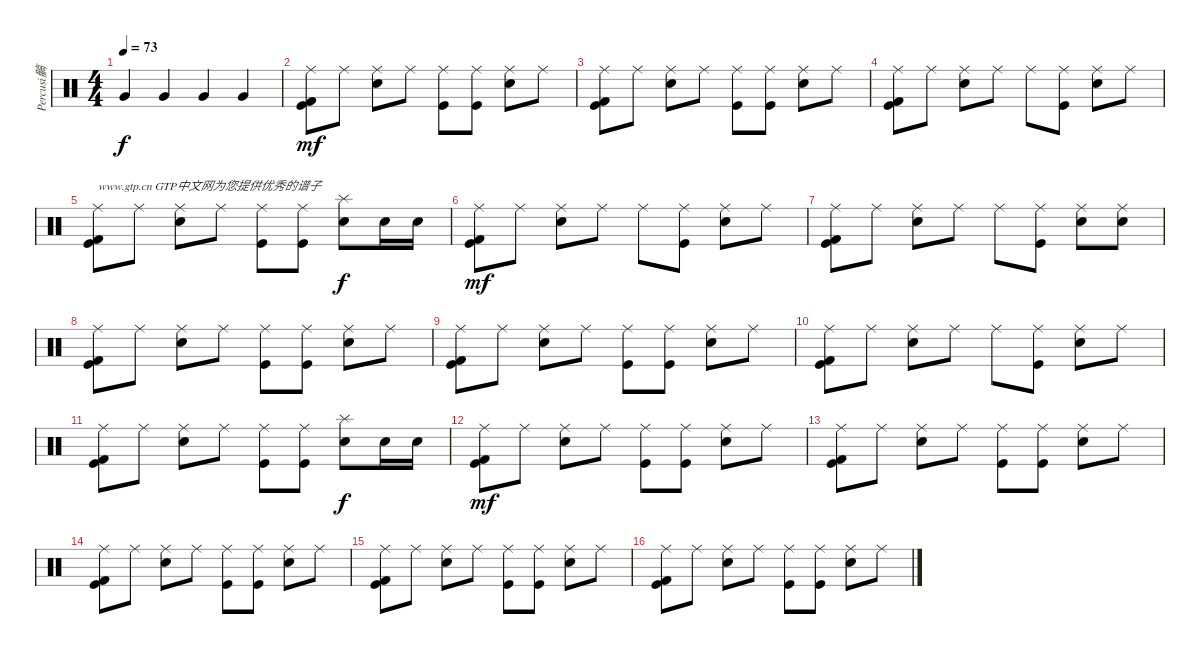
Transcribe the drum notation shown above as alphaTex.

\track ("Percusi髇" "Percusi髇") {instrument percussion}
\staff {score}
\articulation defaults
\ts (4 4)
\tempo 73
\clef neutral
\ks c "Very Low Tom (hit)".4{dy f} "Very Low Tom (hit)".4 "Very Low Tom (hit)".4 "Very Low Tom (hit)".4
|
("Ride (middle)" "Kick (hit) 2" "Kick (hit)").8{dy mf} "Ride (middle)".8 ("Ride (middle)" "Electric Snare (hit)").8 "Ride (middle)".8 ("Ride (middle)" "Kick (hit)").8 ("Ride (middle)" "Kick (hit)").8 ("Ride (middle)" "Electric Snare (hit)").8 "Ride (middle)".8 |
("Ride (middle)" "Kick (hit) 2" "Kick (hit)").8 "Ride (middle)".8 ("Ride (middle)" "Electric Snare (hit)").8 "Ride (middle)".8 ("Ride (middle)" "Kick (hit)").8 ("Ride (middle)" "Kick (hit)").8 ("Ride (middle)" "Electric Snare (hit)").8 "Ride (middle)".8 |
("Ride (middle)" "Kick (hit) 2" "Kick (hit)").8 "Ride (middle)".8 ("Ride (middle)" "Electric Snare (hit)").8 "Ride (middle)".8 "Ride (middle)".8 ("Ride (middle)" "Kick (hit)").8 ("Ride (middle)" "Electric Snare (hit)").8 "Ride (middle)".8 |
("Ride (middle)" "Kick (hit) 2" "Kick (hit)").8{txt "www.gtp.cn GTP中文网为您提供优秀的谱子"} "Ride (middle)".8 ("Ride (middle)" "Electric Snare (hit)").8 "Ride (middle)".8 ("Ride (middle)" "Kick (hit)").8 ("Ride (middle)" "Kick (hit)").8 ("Splash (hit)" "Electric Snare (hit)").8{dy f} "Electric Snare (hit)".16 "Electric Snare (hit)".16 |
("Ride (middle)" "Kick (hit) 2" "Kick (hit)").8{dy mf} "Ride (middle)".8 ("Ride (middle)" "Electric Snare (hit)").8 "Ride (middle)".8 "Ride (middle)".8 ("Ride (middle)" "Kick (hit)").8 ("Ride (middle)" "Electric Snare (hit)").8 "Ride (middle)".8 |
("Ride (middle)" "Kick (hit) 2" "Kick (hit)").8 "Ride (middle)".8 ("Ride (middle)" "Electric Snare (hit)").8 "Ride (middle)".8 "Ride (middle)".8 ("Ride (middle)" "Kick (hit)").8 ("Ride (middle)" "Electric Snare (hit)").8 ("Ride (middle)" "Electric Snare (hit)").8 |
("Ride (middle)" "Kick (hit) 2" "Kick (hit)").8 "Ride (middle)".8 ("Ride (middle)" "Electric Snare (hit)").8 "Ride (middle)".8 ("Ride (middle)" "Kick (hit)").8 ("Ride (middle)" "Kick (hit)").8 ("Ride (middle)" "Electric Snare (hit)").8 "Ride (middle)".8 |
("Ride (middle)" "Kick (hit) 2" "Kick (hit)").8 "Ride (middle)".8 ("Ride (middle)" "Electric Snare (hit)").8 "Ride (middle)".8 ("Ride (middle)" "Kick (hit)").8 ("Ride (middle)" "Kick (hit)").8 ("Ride (middle)" "Electric Snare (hit)").8 "Ride (middle)".8 |
("Ride (middle)" "Kick (hit) 2" "Kick (hit)").8 "Ride (middle)".8 ("Ride (middle)" "Electric Snare (hit)").8 "Ride (middle)".8 "Ride (middle)".8 ("Ride (middle)" "Kick (hit)").8 ("Ride (middle)" "Electric Snare (hit)").8 "Ride (middle)".8 |
("Ride (middle)" "Kick (hit) 2" "Kick (hit)").8 "Ride (middle)".8 ("Ride (middle)" "Electric Snare (hit)").8 "Ride (middle)".8 ("Ride (middle)" "Kick (hit)").8 ("Ride (middle)" "Kick (hit)").8 ("Splash (hit)" "Electric Snare (hit)").8{dy f} "Electric Snare (hit)".16 "Electric Snare (hit)".16 |
("Ride (middle)" "Kick (hit) 2" "Kick (hit)").8{dy mf} "Ride (middle)".8 ("Ride (middle)" "Electric Snare (hit)").8 "Ride (middle)".8 ("Ride (middle)" "Kick (hit)").8 ("Ride (middle)" "Kick (hit)").8 ("Ride (middle)" "Electric Snare (hit)").8 "Ride (middle)".8 |
("Ride (middle)" "Kick (hit) 2" "Kick (hit)").8 "Ride (middle)".8 ("Ride (middle)" "Electric Snare (hit)").8 "Ride (middle)".8 ("Ride (middle)" "Kick (hit)").8 ("Ride (middle)" "Kick (hit)").8 ("Ride (middle)" "Electric Snare (hit)").8 "Ride (middle)".8 |
("Ride (middle)" "Kick (hit) 2" "Kick (hit)").8 "Ride (middle)".8 ("Ride (middle)" "Electric Snare (hit)").8 "Ride (middle)".8 ("Ride (middle)" "Kick (hit)").8 ("Ride (middle)" "Kick (hit)").8 ("Ride (middle)" "Electric Snare (hit)").8 "Ride (middle)".8 |
("Ride (middle)" "Kick (hit) 2" "Kick (hit)").8 "Ride (middle)".8 ("Ride (middle)" "Electric Snare (hit)").8 "Ride (middle)".8 ("Ride (middle)" "Kick (hit)").8 ("Ride (middle)" "Kick (hit)").8 ("Ride (middle)" "Electric Snare (hit)").8 "Ride (middle)".8 |
("Ride (middle)" "Kick (hit) 2" "Kick (hit)").8 "Ride (middle)".8 ("Ride (middle)" "Electric Snare (hit)").8 "Ride (middle)".8 ("Ride (middle)" "Kick (hit)").8 ("Ride (middle)" "Kick (hit)").8 ("Ride (middle)" "Electric Snare (hit)").8 "Ride (middle)".8
